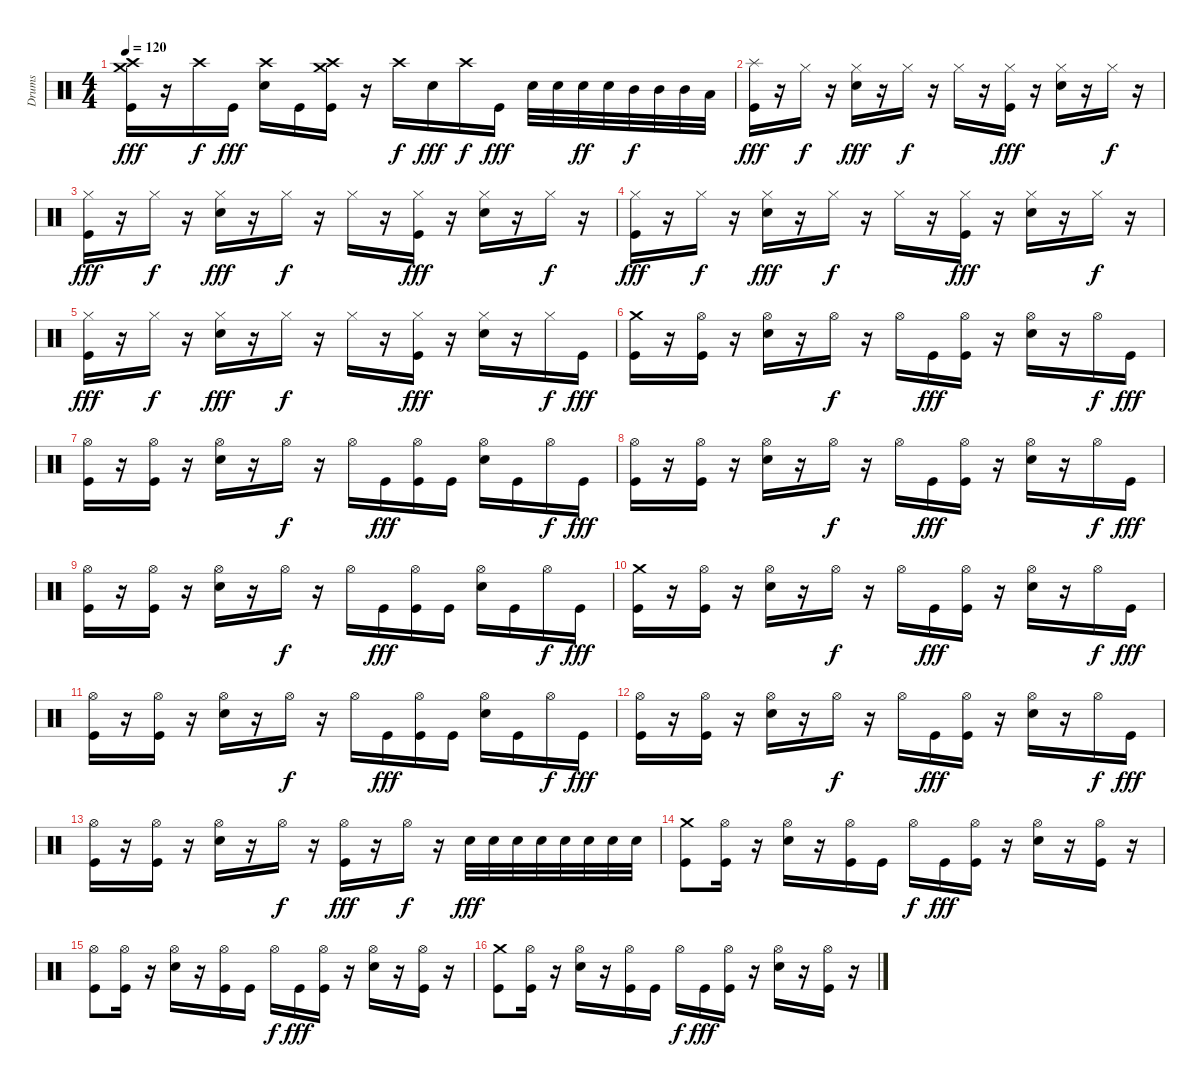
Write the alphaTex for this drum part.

\track ("Drums" "Drums") {instrument percussion}
\staff {score}
\articulation defaults
\ts (4 4)
\tempo 120
\clef neutral
\ks c
("Crash medium (hit)" "Crash high (hit)" "Kick (hit)").16{dy fff} r.16 "Crash high (hit)".16{dy f} "Kick (hit)".16{dy fff} ("Crash high (hit)" "Electric Snare (hit)").16 "Kick (hit)".16 ("Crash medium (hit)" "Crash high (hit)" "Kick (hit)").16 r.16 "Crash high (hit)".16{dy f} "Electric Snare (hit)".16{dy fff} "Crash high (hit)".16{dy f} "Kick (hit)".16{dy fff} "Electric Snare (hit)".32 "Electric Snare (hit)".32 "Electric Snare (hit)".32{dy ff} "Electric Snare (hit)".32 "Mid Tom (hit)".32{dy f} "Mid Tom (hit)".32 "Mid Tom (hit)".32 "Low Tom (hit)".32 |
("Splash (hit)" "Kick (hit)").16{dy fff} r.16 "Hi-Hat (closed)".16{dy f} r.16 ("Hi-Hat (closed)" "Electric Snare (hit)").16{dy fff} r.16 "Hi-Hat (closed)".16{dy f} r.16 "Hi-Hat (closed)".16 r.16 ("Hi-Hat (closed)" "Kick (hit)").16{dy fff} r.16 ("Hi-Hat (closed)" "Electric Snare (hit)").16 r.16 "Hi-Hat (closed)".16{dy f} r.16 |
("Hi-Hat (closed)" "Kick (hit)").16{dy fff} r.16 "Hi-Hat (closed)".16{dy f} r.16 ("Hi-Hat (closed)" "Electric Snare (hit)").16{dy fff} r.16 "Hi-Hat (closed)".16{dy f} r.16 "Hi-Hat (closed)".16 r.16 ("Hi-Hat (closed)" "Kick (hit)").16{dy fff} r.16 ("Hi-Hat (closed)" "Electric Snare (hit)").16 r.16 "Hi-Hat (closed)".16{dy f} r.16 |
("Hi-Hat (closed)" "Kick (hit)").16{dy fff} r.16 "Hi-Hat (closed)".16{dy f} r.16 ("Hi-Hat (closed)" "Electric Snare (hit)").16{dy fff} r.16 "Hi-Hat (closed)".16{dy f} r.16 "Hi-Hat (closed)".16 r.16 ("Hi-Hat (closed)" "Kick (hit)").16{dy fff} r.16 ("Hi-Hat (closed)" "Electric Snare (hit)").16 r.16 "Hi-Hat (closed)".16{dy f} r.16 |
("Hi-Hat (closed)" "Kick (hit)").16{dy fff} r.16 "Hi-Hat (closed)".16{dy f} r.16 ("Hi-Hat (closed)" "Electric Snare (hit)").16{dy fff} r.16 "Hi-Hat (closed)".16{dy f} r.16 "Hi-Hat (closed)".16 r.16 ("Hi-Hat (closed)" "Kick (hit)").16{dy fff} r.16 ("Hi-Hat (closed)" "Electric Snare (hit)").16 r.16 "Hi-Hat (closed)".16{dy f} "Kick (hit)".16{dy fff} |
("Crash medium (hit)" "Kick (hit)").16 r.16 ("Hi-Hat (open)" "Kick (hit)").16 r.16 ("Hi-Hat (open)" "Electric Snare (hit)").16 r.16 "Hi-Hat (open)".16{dy f} r.16 "Hi-Hat (open)".16 "Kick (hit)".16{dy fff} ("Hi-Hat (open)" "Kick (hit)").16 r.16 ("Hi-Hat (open)" "Electric Snare (hit)").16 r.16 "Hi-Hat (open)".16{dy f} "Kick (hit)".16{dy fff} |
("Hi-Hat (open)" "Kick (hit)").16 r.16 ("Hi-Hat (open)" "Kick (hit)").16 r.16 ("Hi-Hat (open)" "Electric Snare (hit)").16 r.16 "Hi-Hat (open)".16{dy f} r.16 "Hi-Hat (open)".16 "Kick (hit)".16{dy fff} ("Hi-Hat (open)" "Kick (hit)").16 "Kick (hit)".16 ("Hi-Hat (open)" "Electric Snare (hit)").16 "Kick (hit)".16 "Hi-Hat (open)".16{dy f} "Kick (hit)".16{dy fff} |
("Hi-Hat (open)" "Kick (hit)").16 r.16 ("Hi-Hat (open)" "Kick (hit)").16 r.16 ("Hi-Hat (open)" "Electric Snare (hit)").16 r.16 "Hi-Hat (open)".16{dy f} r.16 "Hi-Hat (open)".16 "Kick (hit)".16{dy fff} ("Hi-Hat (open)" "Kick (hit)").16 r.16 ("Hi-Hat (open)" "Electric Snare (hit)").16 r.16 "Hi-Hat (open)".16{dy f} "Kick (hit)".16{dy fff} |
("Hi-Hat (open)" "Kick (hit)").16 r.16 ("Hi-Hat (open)" "Kick (hit)").16 r.16 ("Hi-Hat (open)" "Electric Snare (hit)").16 r.16 "Hi-Hat (open)".16{dy f} r.16 "Hi-Hat (open)".16 "Kick (hit)".16{dy fff} ("Hi-Hat (open)" "Kick (hit)").16 "Kick (hit)".16 ("Hi-Hat (open)" "Electric Snare (hit)").16 "Kick (hit)".16 "Hi-Hat (open)".16{dy f} "Kick (hit)".16{dy fff} |
("Crash medium (hit)" "Kick (hit)").16 r.16 ("Hi-Hat (open)" "Kick (hit)").16 r.16 ("Hi-Hat (open)" "Electric Snare (hit)").16 r.16 "Hi-Hat (open)".16{dy f} r.16 "Hi-Hat (open)".16 "Kick (hit)".16{dy fff} ("Hi-Hat (open)" "Kick (hit)").16 r.16 ("Hi-Hat (open)" "Electric Snare (hit)").16 r.16 "Hi-Hat (open)".16{dy f} "Kick (hit)".16{dy fff} |
("Hi-Hat (open)" "Kick (hit)").16 r.16 ("Hi-Hat (open)" "Kick (hit)").16 r.16 ("Hi-Hat (open)" "Electric Snare (hit)").16 r.16 "Hi-Hat (open)".16{dy f} r.16 "Hi-Hat (open)".16 "Kick (hit)".16{dy fff} ("Hi-Hat (open)" "Kick (hit)").16 "Kick (hit)".16 ("Hi-Hat (open)" "Electric Snare (hit)").16 "Kick (hit)".16 "Hi-Hat (open)".16{dy f} "Kick (hit)".16{dy fff} |
("Hi-Hat (open)" "Kick (hit)").16 r.16 ("Hi-Hat (open)" "Kick (hit)").16 r.16 ("Hi-Hat (open)" "Electric Snare (hit)").16 r.16 "Hi-Hat (open)".16{dy f} r.16 "Hi-Hat (open)".16 "Kick (hit)".16{dy fff} ("Hi-Hat (open)" "Kick (hit)").16 r.16 ("Hi-Hat (open)" "Electric Snare (hit)").16 r.16 "Hi-Hat (open)".16{dy f} "Kick (hit)".16{dy fff} |
("Hi-Hat (open)" "Kick (hit)").16 r.16 ("Hi-Hat (open)" "Kick (hit)").16 r.16 ("Hi-Hat (open)" "Electric Snare (hit)").16 r.16 "Hi-Hat (open)".16{dy f} r.16 ("Hi-Hat (open)" "Kick (hit)").16{dy fff} r.16 "Hi-Hat (open)".16{dy f} r.16 "Electric Snare (hit)".32{dy fff} "Electric Snare (hit)".32 "Electric Snare (hit)".32 "Electric Snare (hit)".32 "Electric Snare (hit)".32 "Electric Snare (hit)".32 "Electric Snare (hit)".32 "Electric Snare (hit)".32 |
("Kick (hit)" "Crash medium (hit)").8 ("Kick (hit)" "Hi-Hat (open)").16 r.16 ("Electric Snare (hit)" "Hi-Hat (open)").16 r.16 ("Kick (hit)" "Hi-Hat (open)").16 "Kick (hit)".16 "Hi-Hat (open)".16{dy f} "Kick (hit)".16{dy fff} ("Kick (hit)" "Hi-Hat (open)").16 r.16 ("Electric Snare (hit)" "Hi-Hat (open)").16 r.16 ("Kick (hit)" "Hi-Hat (open)").16 r.16 |
("Kick (hit)" "Hi-Hat (open)").8 ("Kick (hit)" "Hi-Hat (open)").16 r.16 ("Electric Snare (hit)" "Hi-Hat (open)").16 r.16 ("Kick (hit)" "Hi-Hat (open)").16 "Kick (hit)".16 "Hi-Hat (open)".16{dy f} "Kick (hit)".16{dy fff} ("Kick (hit)" "Hi-Hat (open)").16 r.16 ("Electric Snare (hit)" "Hi-Hat (open)").16 r.16 ("Kick (hit)" "Hi-Hat (open)").16 r.16 |
("Kick (hit)" "Crash medium (hit)").8 ("Kick (hit)" "Hi-Hat (open)").16 r.16 ("Electric Snare (hit)" "Hi-Hat (open)").16 r.16 ("Kick (hit)" "Hi-Hat (open)").16 "Kick (hit)".16 "Hi-Hat (open)".16{dy f} "Kick (hit)".16{dy fff} ("Kick (hit)" "Hi-Hat (open)").16 r.16 ("Electric Snare (hit)" "Hi-Hat (open)").16 r.16 ("Kick (hit)" "Hi-Hat (open)").16 r.16
